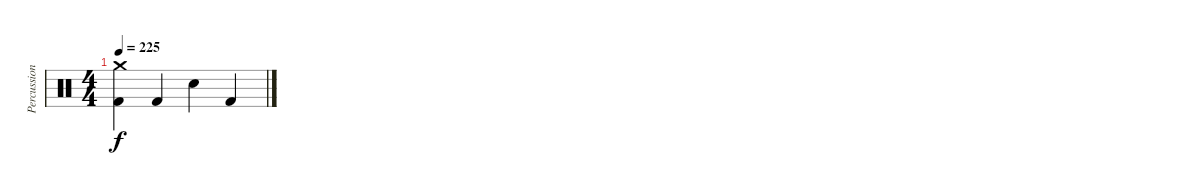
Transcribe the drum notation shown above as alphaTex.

\track ("Percussion" "Percussion") {instrument percussion}
\staff {score}
\articulation defaults
\ts (4 4)
\tempo 225
\clef neutral
\ks c
("Crash medium (hit)" "Kick (hit) 2").4{dy f} "Kick (hit) 2".4 "Electric Snare (hit)".4 "Kick (hit) 2".4
